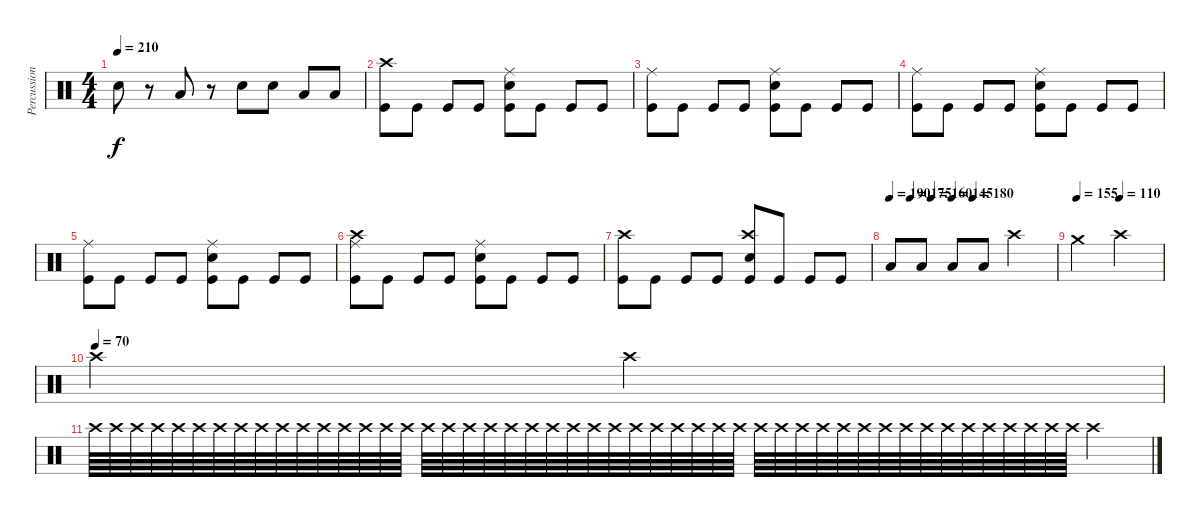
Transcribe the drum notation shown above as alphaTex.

\track ("Percussion" "Percussion") {instrument percussion}
\staff {score}
\articulation defaults
\ts (4 4)
\tempo 210
\clef neutral
\ks c "Snare (hit) 2".8{dy f}
r.8 "Low Tom (hit)".8 r.8 "Snare (hit) 2".8 "Snare (hit) 2".8 "Low Tom (hit)".8 "Low Tom (hit)".8 |
("Crash high (hit)" "Kick (hit)").8 "Kick (hit)".8 "Kick (hit)".8 "Kick (hit)".8 ("Snare (hit) 2" "Ride (middle)" "Kick (hit)").8 "Kick (hit)".8 "Kick (hit)".8 "Kick (hit)".8 |
("Ride (middle)" "Kick (hit)").8 "Kick (hit)".8 "Kick (hit)".8 "Kick (hit)".8 ("Snare (hit) 2" "Ride (middle)" "Kick (hit)").8 "Kick (hit)".8 "Kick (hit)".8 "Kick (hit)".8 |
("Ride (middle)" "Kick (hit)").8 "Kick (hit)".8 "Kick (hit)".8 "Kick (hit)".8 ("Snare (hit) 2" "Ride (middle)" "Kick (hit)").8 "Kick (hit)".8 "Kick (hit)".8 "Kick (hit)".8 |
("Ride (middle)" "Kick (hit)").8 "Kick (hit)".8 "Kick (hit)".8 "Kick (hit)".8 ("Snare (hit) 2" "Ride (middle)" "Kick (hit)").8 "Kick (hit)".8 "Kick (hit)".8 "Kick (hit)".8 |
("Crash high (hit)" "Ride (middle)" "Kick (hit)").8 "Kick (hit)".8 "Kick (hit)".8 "Kick (hit)".8 ("Snare (hit) 2" "Ride (middle)" "Kick (hit)").8 "Kick (hit)".8 "Kick (hit)".8 "Kick (hit)".8 |
("Crash high (hit)" "Kick (hit)").8 "Kick (hit)".8 "Kick (hit)".8 "Kick (hit)".8 ("Snare (hit) 2" "Crash high (hit)" "Kick (hit)").8 "Kick (hit)".8 "Kick (hit)".8 "Kick (hit)".8 |
\tempo 190
\tempo (175 0.125)
\tempo (160 0.25)
\tempo (145 0.375)
\tempo (180 0.5)
"Low Tom (hit)".8 "Low Tom (hit)".8 "Low Tom (hit)".8 "Low Tom (hit)".8 "Crash high (hit)".2 |
\tempo 155
\tempo (110 0.5)
"Crash medium (hit)".2 "Crash high (hit)".2 |
\tempo (70)
"Crash high (hit)".2 "Crash high (hit)".2 |
"Crash high (hit)".64{volume 0} "Crash high (hit)".64{volume 11} "Crash high (hit)".64 "Crash high (hit)".64 "Crash high (hit)".64 "Crash high (hit)".64 "Crash high (hit)".64 "Crash high (hit)".64 "Crash high (hit)".64 "Crash high (hit)".64 "Crash high (hit)".64 "Crash high (hit)".64 "Crash high (hit)".64 "Crash high (hit)".64 "Crash high (hit)".64 "Crash high (hit)".64 "Crash high (hit)".64 "Crash high (hit)".64 "Crash high (hit)".64 "Crash high (hit)".64 "Crash high (hit)".64 "Crash high (hit)".64 "Crash high (hit)".64 "Crash high (hit)".64 "Crash high (hit)".64 "Crash high (hit)".64 "Crash high (hit)".64 "Crash high (hit)".64 "Crash high (hit)".64 "Crash high (hit)".64 "Crash high (hit)".64 "Crash high (hit)".64 "Crash high (hit)".64 "Crash high (hit)".64 "Crash high (hit)".64 "Crash high (hit)".64 "Crash high (hit)".64 "Crash high (hit)".64 "Crash high (hit)".64 "Crash high (hit)".64 "Crash high (hit)".64 "Crash high (hit)".64 "Crash high (hit)".64 "Crash high (hit)".64 "Crash high (hit)".64 "Crash high (hit)".64 "Crash high (hit)".64 "Crash high (hit)".64 "Crash high (hit)".4
